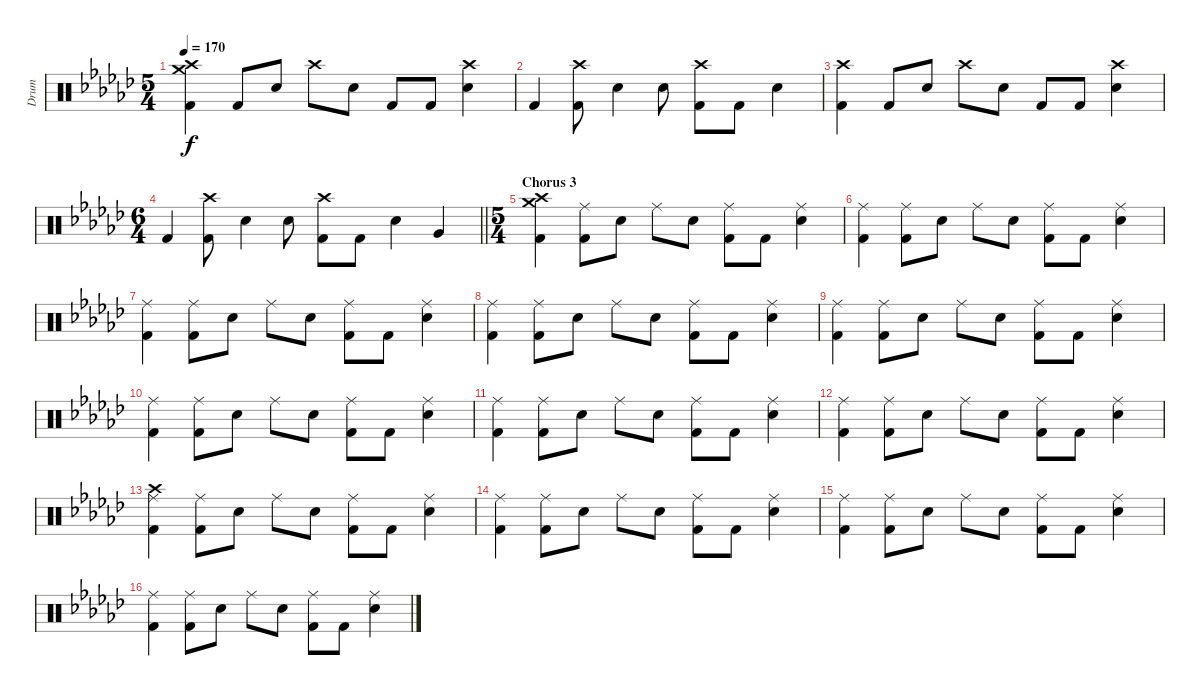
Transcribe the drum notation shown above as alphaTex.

\track ("Drum" "Drum") {instrument percussion}
\staff {score}
\articulation defaults
\ts (5 4)
\tempo 170
\clef neutral
\ks gb
("Crash high (hit)" "Crash medium (hit)" "Kick (hit) 2").4{dy f} "Kick (hit) 2".8 "Snare (hit) 2".8 "Crash high (hit)".8 "Snare (hit) 2".8 "Kick (hit) 2".8 "Kick (hit) 2".8 ("Crash high (hit)" "Snare (hit) 2").4 |
"Kick (hit) 2".4 ("Crash high (hit)" "Kick (hit) 2").8 "Snare (hit) 2".4 "Snare (hit) 2".8 ("Crash high (hit)" "Kick (hit) 2").8 "Kick (hit) 2".8 "Snare (hit) 2".4 |
("Crash high (hit)" "Kick (hit) 2").4 "Kick (hit) 2".8 "Snare (hit) 2".8 "Crash high (hit)".8 "Snare (hit) 2".8 "Kick (hit) 2".8 "Kick (hit) 2".8 ("Crash high (hit)" "Snare (hit) 2").4 |
\ts (6 4)
\barLineRight lightlight "Kick (hit) 2".4
("Crash high (hit)" "Kick (hit) 2").8 "Snare (hit) 2".4 "Snare (hit) 2".8 ("Crash high (hit)" "Kick (hit) 2").8 "Kick (hit) 2".8 "Snare (hit) 2".4 "Very Low Tom (hit)".4 |
\ts (5 4)
\section ("" "Chorus 3")
("Crash high (hit)" "Crash medium (hit)" "Kick (hit) 2").4 ("Ride (middle)" "Kick (hit) 2").8 "Snare (hit) 2".8 "Ride (middle)".8 "Snare (hit) 2".8 ("Ride (middle)" "Kick (hit) 2").8 "Kick (hit) 2".8 ("Ride (middle)" "Snare (hit) 2").4 |
("Ride (middle)" "Kick (hit) 2").4 ("Ride (middle)" "Kick (hit) 2").8 "Snare (hit) 2".8 "Ride (middle)".8 "Snare (hit) 2".8 ("Ride (middle)" "Kick (hit) 2").8 "Kick (hit) 2".8 ("Ride (middle)" "Snare (hit) 2").4 |
("Ride (middle)" "Kick (hit) 2").4 ("Ride (middle)" "Kick (hit) 2").8 "Snare (hit) 2".8 "Ride (middle)".8 "Snare (hit) 2".8 ("Ride (middle)" "Kick (hit) 2").8 "Kick (hit) 2".8 ("Ride (middle)" "Snare (hit) 2").4 |
("Ride (middle)" "Kick (hit) 2").4 ("Ride (middle)" "Kick (hit) 2").8 "Snare (hit) 2".8 "Ride (middle)".8 "Snare (hit) 2".8 ("Ride (middle)" "Kick (hit) 2").8 "Kick (hit) 2".8 ("Ride (middle)" "Snare (hit) 2").4 |
("Ride (middle)" "Kick (hit) 2").4 ("Ride (middle)" "Kick (hit) 2").8 "Snare (hit) 2".8 "Ride (middle)".8 "Snare (hit) 2".8 ("Ride (middle)" "Kick (hit) 2").8 "Kick (hit) 2".8 ("Ride (middle)" "Snare (hit) 2").4 |
("Ride (middle)" "Kick (hit) 2").4 ("Ride (middle)" "Kick (hit) 2").8 "Snare (hit) 2".8 "Ride (middle)".8 "Snare (hit) 2".8 ("Ride (middle)" "Kick (hit) 2").8 "Kick (hit) 2".8 ("Ride (middle)" "Snare (hit) 2").4 |
("Ride (middle)" "Kick (hit) 2").4 ("Ride (middle)" "Kick (hit) 2").8 "Snare (hit) 2".8 "Ride (middle)".8 "Snare (hit) 2".8 ("Ride (middle)" "Kick (hit) 2").8 "Kick (hit) 2".8 ("Ride (middle)" "Snare (hit) 2").4 |
("Ride (middle)" "Kick (hit) 2").4 ("Ride (middle)" "Kick (hit) 2").8 "Snare (hit) 2".8 "Ride (middle)".8 "Snare (hit) 2".8 ("Ride (middle)" "Kick (hit) 2").8 "Kick (hit) 2".8 ("Ride (middle)" "Snare (hit) 2").4 |
("Crash high (hit)" "Ride (middle)" "Kick (hit) 2").4 ("Ride (middle)" "Kick (hit) 2").8 "Snare (hit) 2".8 "Ride (middle)".8 "Snare (hit) 2".8 ("Ride (middle)" "Kick (hit) 2").8 "Kick (hit) 2".8 ("Ride (middle)" "Snare (hit) 2").4 |
("Ride (middle)" "Kick (hit) 2").4 ("Ride (middle)" "Kick (hit) 2").8 "Snare (hit) 2".8 "Ride (middle)".8 "Snare (hit) 2".8 ("Ride (middle)" "Kick (hit) 2").8 "Kick (hit) 2".8 ("Ride (middle)" "Snare (hit) 2").4 |
("Ride (middle)" "Kick (hit) 2").4 ("Ride (middle)" "Kick (hit) 2").8 "Snare (hit) 2".8 "Ride (middle)".8 "Snare (hit) 2".8 ("Ride (middle)" "Kick (hit) 2").8 "Kick (hit) 2".8 ("Ride (middle)" "Snare (hit) 2").4 |
("Ride (middle)" "Kick (hit) 2").4 ("Ride (middle)" "Kick (hit) 2").8 "Snare (hit) 2".8 "Ride (middle)".8 "Snare (hit) 2".8 ("Ride (middle)" "Kick (hit) 2").8 "Kick (hit) 2".8 ("Ride (middle)" "Snare (hit) 2").4
